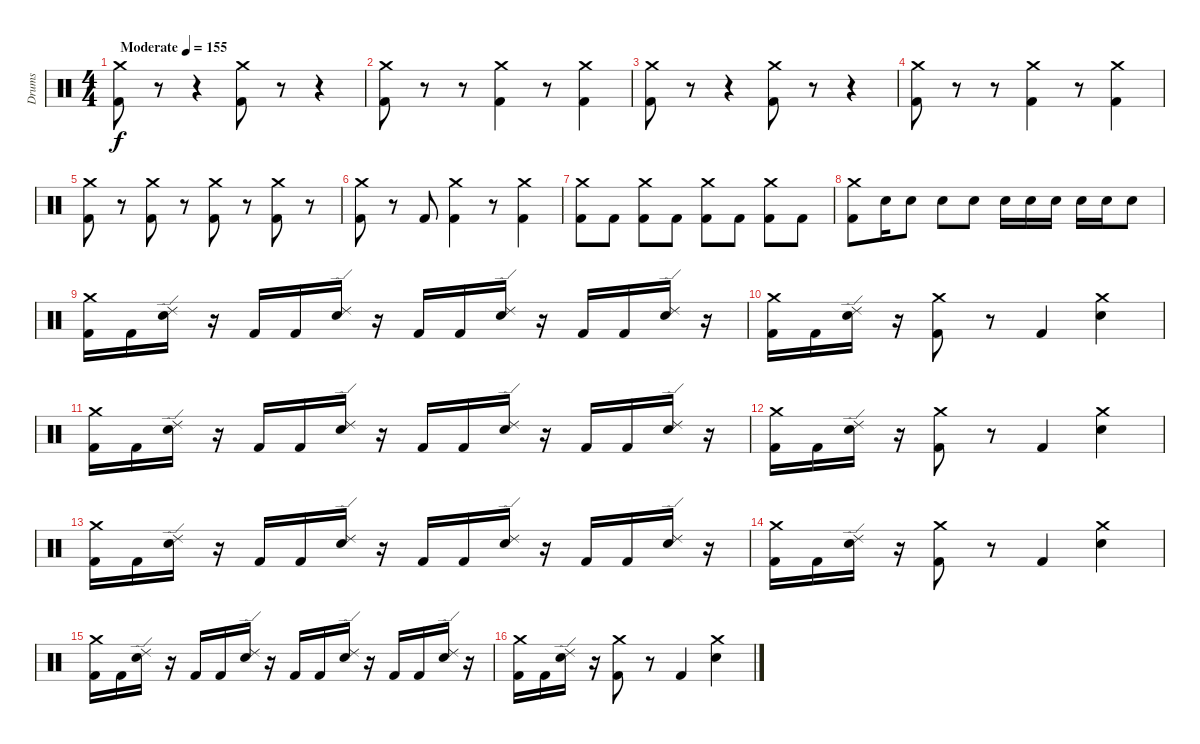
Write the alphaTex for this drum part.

\track ("Drums" "Drums") {instrument percussion}
\staff {score}
\articulation defaults
\ts (4 4)
\tempo (155 "Moderate")
\clef neutral
\ks c
("Crash medium (hit)" "Kick (hit) 2").8{dy f} r.8 r.4 ("Crash medium (hit)" "Kick (hit) 2").8 r.8 r.4 |
("Crash medium (hit)" "Kick (hit) 2").8 r.8 r.8 ("Crash medium (hit)" "Kick (hit) 2").4 r.8 ("Crash medium (hit)" "Kick (hit) 2").4 |
("Crash medium (hit)" "Kick (hit) 2").8 r.8 r.4 ("Crash medium (hit)" "Kick (hit) 2").8 r.8 r.4 |
("Crash medium (hit)" "Kick (hit) 2").8 r.8 r.8 ("Crash medium (hit)" "Kick (hit) 2").4 r.8 ("Crash medium (hit)" "Kick (hit) 2").4 |
("Crash medium (hit)" "Kick (hit) 2").8 r.8 ("Crash medium (hit)" "Kick (hit) 2").8 r.8 ("Crash medium (hit)" "Kick (hit) 2").8 r.8 ("Crash medium (hit)" "Kick (hit) 2").8 r.8 |
("Crash medium (hit)" "Kick (hit) 2").8 r.8 "Kick (hit) 2".8 ("Crash medium (hit)" "Kick (hit) 2").4 r.8 ("Crash medium (hit)" "Kick (hit) 2").4 |
("Crash medium (hit)" "Kick (hit) 2").8 "Kick (hit) 2".8 ("Crash medium (hit)" "Kick (hit) 2").8 "Kick (hit) 2".8 ("Crash medium (hit)" "Kick (hit) 2").8 "Kick (hit) 2".8 ("Crash medium (hit)" "Kick (hit) 2").8 "Kick (hit) 2".8 |
("Crash medium (hit)" "Kick (hit) 2").8 "Snare (hit) 2".16 "Snare (hit) 2".8 "Snare (hit) 2".8 "Snare (hit) 2".8 "Snare (hit) 2".16 "Snare (hit) 2".16 "Snare (hit) 2".16 "Snare (hit) 2".16 "Snare (hit) 2".16 "Snare (hit) 2".8 |
("Crash medium (hit)" "Kick (hit) 2").16 "Kick (hit) 2".16 ("Ride (edge) 2" "Snare (hit) 2").16 r.16 "Kick (hit) 2".16 "Kick (hit) 2".16 ("Ride (edge) 2" "Snare (hit) 2").16 r.16 "Kick (hit) 2".16 "Kick (hit) 2".16 ("Ride (edge) 2" "Snare (hit) 2").16 r.16 "Kick (hit) 2".16 "Kick (hit) 2".16 ("Ride (edge) 2" "Snare (hit) 2").16 r.16 |
("Crash medium (hit)" "Kick (hit) 2").16 "Kick (hit) 2".16 ("Ride (edge) 2" "Snare (hit) 2").16 r.16 ("Crash medium (hit)" "Kick (hit) 2").8 r.8 "Kick (hit) 2".4 ("Crash medium (hit)" "Snare (hit) 2").4 |
("Crash medium (hit)" "Kick (hit) 2").16 "Kick (hit) 2".16 ("Ride (edge) 2" "Snare (hit) 2").16 r.16 "Kick (hit) 2".16 "Kick (hit) 2".16 ("Ride (edge) 2" "Snare (hit) 2").16 r.16 "Kick (hit) 2".16 "Kick (hit) 2".16 ("Ride (edge) 2" "Snare (hit) 2").16 r.16 "Kick (hit) 2".16 "Kick (hit) 2".16 ("Ride (edge) 2" "Snare (hit) 2").16 r.16 |
("Crash medium (hit)" "Kick (hit) 2").16 "Kick (hit) 2".16 ("Ride (edge) 2" "Snare (hit) 2").16 r.16 ("Crash medium (hit)" "Kick (hit) 2").8 r.8 "Kick (hit) 2".4 ("Crash medium (hit)" "Snare (hit) 2").4 |
("Crash medium (hit)" "Kick (hit) 2").16 "Kick (hit) 2".16 ("Ride (edge) 2" "Snare (hit) 2").16 r.16 "Kick (hit) 2".16 "Kick (hit) 2".16 ("Ride (edge) 2" "Snare (hit) 2").16 r.16 "Kick (hit) 2".16 "Kick (hit) 2".16 ("Ride (edge) 2" "Snare (hit) 2").16 r.16 "Kick (hit) 2".16 "Kick (hit) 2".16 ("Ride (edge) 2" "Snare (hit) 2").16 r.16 |
("Crash medium (hit)" "Kick (hit) 2").16 "Kick (hit) 2".16 ("Ride (edge) 2" "Snare (hit) 2").16 r.16 ("Crash medium (hit)" "Kick (hit) 2").8 r.8 "Kick (hit) 2".4 ("Crash medium (hit)" "Snare (hit) 2").4 |
("Crash medium (hit)" "Kick (hit) 2").16 "Kick (hit) 2".16 ("Ride (edge) 2" "Snare (hit) 2").16 r.16 "Kick (hit) 2".16 "Kick (hit) 2".16 ("Ride (edge) 2" "Snare (hit) 2").16 r.16 "Kick (hit) 2".16 "Kick (hit) 2".16 ("Ride (edge) 2" "Snare (hit) 2").16 r.16 "Kick (hit) 2".16 "Kick (hit) 2".16 ("Ride (edge) 2" "Snare (hit) 2").16 r.16 |
("Crash medium (hit)" "Kick (hit) 2").16 "Kick (hit) 2".16 ("Ride (edge) 2" "Snare (hit) 2").16 r.16 ("Crash medium (hit)" "Kick (hit) 2").8 r.8 "Kick (hit) 2".4 ("Crash medium (hit)" "Snare (hit) 2").4
